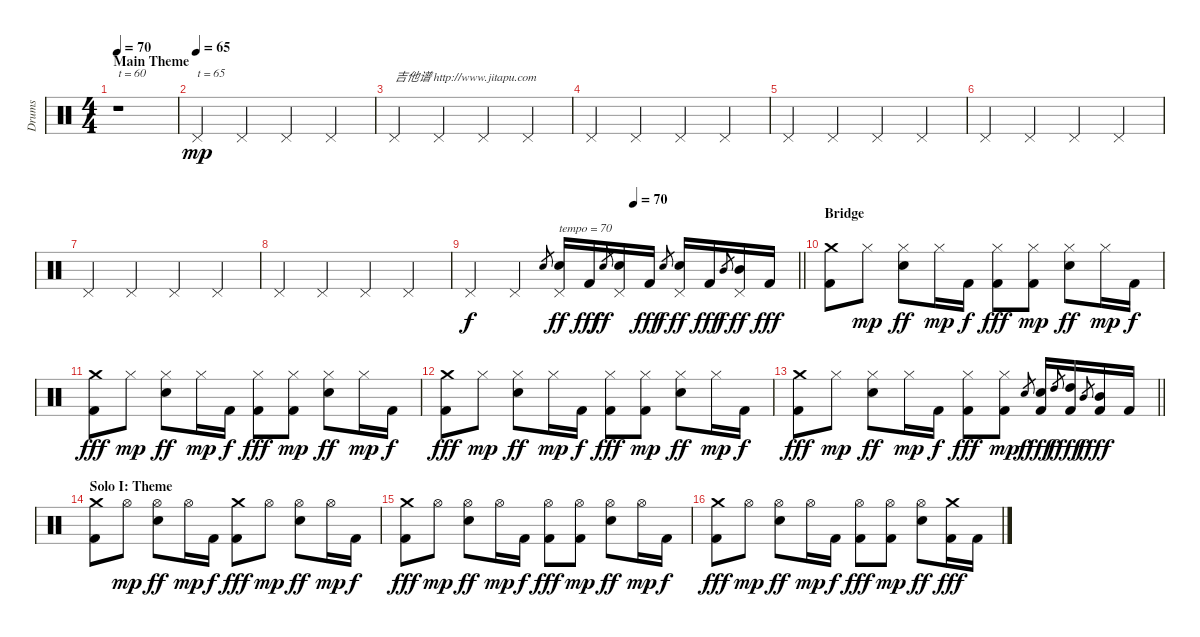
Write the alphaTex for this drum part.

\track ("Drums" "Drums") {instrument percussion}
\staff {score}
\articulation defaults
\ts (4 4)
\section ("" "Main Theme")
\tempo 70
\tempo 60
\tempo 70
\clef neutral
\ks c
r.1{txt "t = 60" dy mp} |
\tempo (65)
"Pedal Hi-Hat (hit)".4{txt "t = 65"} "Pedal Hi-Hat (hit)".4 "Pedal Hi-Hat (hit)".4 "Pedal Hi-Hat (hit)".4 |
"Pedal Hi-Hat (hit)".4{txt "吉他谱 http://www.jitapu.com"} "Pedal Hi-Hat (hit)".4 "Pedal Hi-Hat (hit)".4 "Pedal Hi-Hat (hit)".4 |
"Pedal Hi-Hat (hit)".4 "Pedal Hi-Hat (hit)".4 "Pedal Hi-Hat (hit)".4 "Pedal Hi-Hat (hit)".4 |
"Pedal Hi-Hat (hit)".4 "Pedal Hi-Hat (hit)".4 "Pedal Hi-Hat (hit)".4 "Pedal Hi-Hat (hit)".4 |
"Pedal Hi-Hat (hit)".4 "Pedal Hi-Hat (hit)".4 "Pedal Hi-Hat (hit)".4 "Pedal Hi-Hat (hit)".4 |
"Pedal Hi-Hat (hit)".4 "Pedal Hi-Hat (hit)".4 "Pedal Hi-Hat (hit)".4 "Pedal Hi-Hat (hit)".4 |
"Pedal Hi-Hat (hit)".4 "Pedal Hi-Hat (hit)".4 "Pedal Hi-Hat (hit)".4 "Pedal Hi-Hat (hit)".4 |
\tempo (70 0.5)
\barLineRight lightlight "Pedal Hi-Hat (hit)".4{dy f} "Pedal Hi-Hat (hit)".4 "Snare (hit) 2".8{gr}
("Pedal Hi-Hat (hit)" "Snare (hit) 2").16{txt "tempo = 70" dy ff} "Kick (hit) 2".16{dy fff} "Snare (hit) 2".8{gr dy ff} ("Pedal Hi-Hat (hit)" "Snare (hit) 2").16 "Kick (hit) 2".16{dy fff} "Snare (hit) 2".8{gr dy f} ("Pedal Hi-Hat (hit)" "Snare (hit) 2").16{dy ff} "Kick (hit) 2".16{dy fff} "Mid Tom (hit)".8{gr dy f} ("Pedal Hi-Hat (hit)" "Mid Tom (hit)").16{dy ff} "Kick (hit) 2".16{dy fff} |
\section ("" "Bridge")
("Crash medium (hit)" "Kick (hit) 2").8 "Hi-Hat (closed)".8{dy mp} ("Hi-Hat (closed)" "Snare (hit) 2").8{dy ff} "Hi-Hat (closed)".16{dy mp} "Kick (hit) 2".16{dy f} ("Hi-Hat (closed)" "Kick (hit) 2").8{dy fff} ("Hi-Hat (closed)" "Kick (hit) 2").8{dy mp} ("Hi-Hat (closed)" "Snare (hit) 2").8{dy ff} "Hi-Hat (closed)".16{dy mp} "Kick (hit) 2".16{dy f} |
("Crash medium (hit)" "Kick (hit) 2").8{dy fff} "Hi-Hat (closed)".8{dy mp} ("Hi-Hat (closed)" "Snare (hit) 2").8{dy ff} "Hi-Hat (closed)".16{dy mp} "Kick (hit) 2".16{dy f} ("Hi-Hat (closed)" "Kick (hit) 2").8{dy fff} ("Hi-Hat (closed)" "Kick (hit) 2").8{dy mp} ("Hi-Hat (closed)" "Snare (hit) 2").8{dy ff} "Hi-Hat (closed)".16{dy mp} "Kick (hit) 2".16{dy f} |
("Crash medium (hit)" "Kick (hit) 2").8{dy fff} "Hi-Hat (closed)".8{dy mp} ("Hi-Hat (closed)" "Snare (hit) 2").8{dy ff} "Hi-Hat (closed)".16{dy mp} "Kick (hit) 2".16{dy f} ("Hi-Hat (closed)" "Kick (hit) 2").8{dy fff} ("Hi-Hat (closed)" "Kick (hit) 2").8{dy mp} ("Hi-Hat (closed)" "Snare (hit) 2").8{dy ff} "Hi-Hat (closed)".16{dy mp} "Kick (hit) 2".16{dy f} |
\barLineRight lightlight
("Crash medium (hit)" "Kick (hit) 2").8{dy fff} "Hi-Hat (closed)".8{dy mp} ("Hi-Hat (closed)" "Snare (hit) 2").8{dy ff} "Hi-Hat (closed)".16{dy mp} "Kick (hit) 2".16{dy f} ("Hi-Hat (closed)" "Kick (hit) 2").8{dy fff} ("Hi-Hat (closed)" "Kick (hit) 2").8{dy mp} "Snare (hit) 2".8{gr dy f} ("Snare (hit) 2" "Kick (hit) 2").16{dy fff} "High Tom (hit)".8{gr dy f} ("High Tom (hit)" "Kick (hit) 2").16{dy fff} "Mid Tom (hit)".8{gr dy f} ("Mid Tom (hit)" "Kick (hit) 2").16{dy fff} "Kick (hit) 2".16 |
\section ("" "Solo I: Theme")
("Crash medium (hit)" "Kick (hit) 2").8 "Hi-Hat (open)".8{dy mp} ("Hi-Hat (open)" "Snare (hit) 2").8{dy ff} "Hi-Hat (open)".16{dy mp} "Kick (hit) 2".16{dy f} ("Crash medium (hit)" "Kick (hit) 2").8{dy fff} "Hi-Hat (open)".8{dy mp} ("Hi-Hat (open)" "Snare (hit) 2").8{dy ff} "Hi-Hat (open)".16{dy mp} "Kick (hit) 2".16{dy f} |
("Crash medium (hit)" "Kick (hit) 2").8{dy fff} "Hi-Hat (open)".8{dy mp} ("Hi-Hat (open)" "Snare (hit) 2").8{dy ff} "Hi-Hat (open)".16{dy mp} "Kick (hit) 2".16{dy f} ("Hi-Hat (open)" "Kick (hit) 2").8{dy fff} ("Hi-Hat (open)" "Kick (hit) 2").8{dy mp} ("Hi-Hat (open)" "Snare (hit) 2").8{dy ff} "Hi-Hat (open)".16{dy mp} "Kick (hit) 2".16{dy f} |
("Crash medium (hit)" "Kick (hit) 2").8{dy fff} "Hi-Hat (open)".8{dy mp} ("Hi-Hat (open)" "Snare (hit) 2").8{dy ff} "Hi-Hat (open)".16{dy mp} "Kick (hit) 2".16{dy f} ("Hi-Hat (open)" "Kick (hit) 2").8{dy fff} ("Hi-Hat (open)" "Kick (hit) 2").8{dy mp} ("Hi-Hat (open)" "Snare (hit) 2").8{dy ff} ("Crash medium (hit)" "Kick (hit) 2").16{dy fff} "Kick (hit) 2".16
